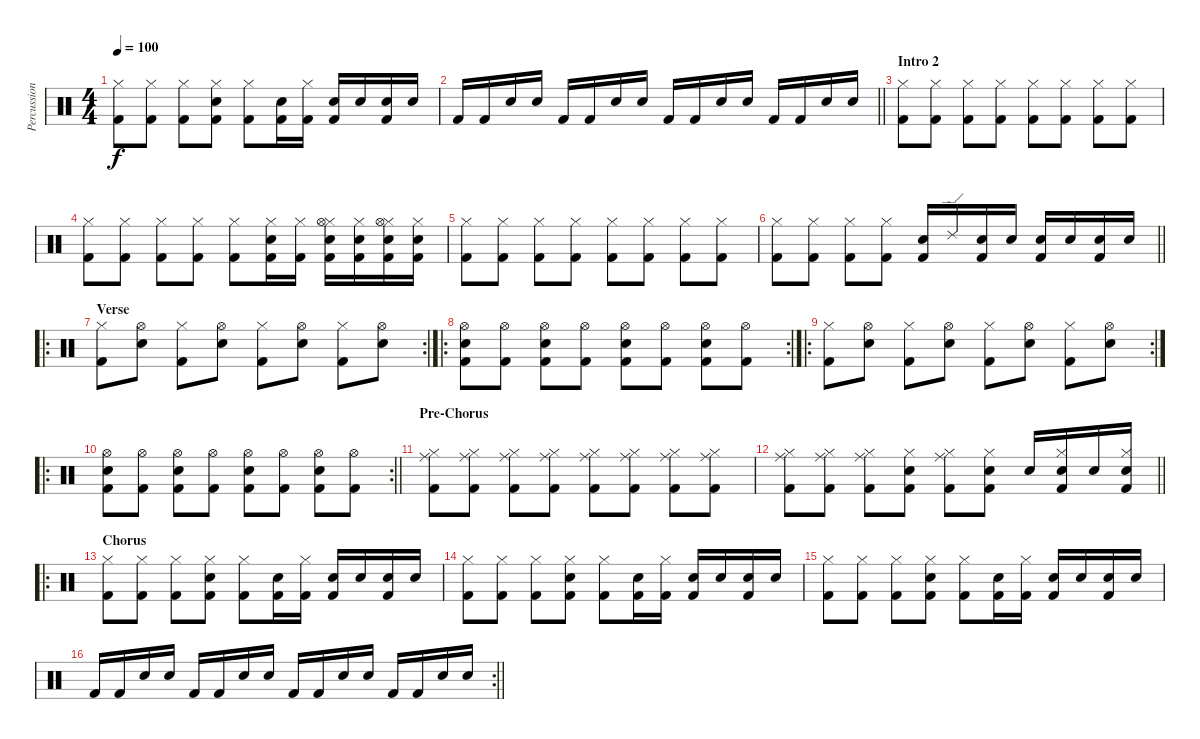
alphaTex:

\track ("Percussion" "Percussion") {instrument percussion}
\staff {score}
\articulation defaults
\ts (4 4)
\tempo 100
\clef neutral
\ks c
("Kick (hit) 2" "Hi-Hat (closed)").8{dy f} ("Kick (hit) 2" "Hi-Hat (closed)").8 ("Kick (hit) 2" "Hi-Hat (closed)").8 ("Kick (hit) 2" "Snare (hit) 2" "Hi-Hat (closed)").8 ("Kick (hit) 2" "Hi-Hat (closed)").8 ("Kick (hit) 2" "Snare (hit) 2").16 ("Kick (hit) 2" "Hi-Hat (closed)").16 ("Kick (hit) 2" "Snare (hit) 2").16 "Snare (hit) 2".16 ("Kick (hit) 2" "Snare (hit) 2").16 "Snare (hit) 2".16 |
\barLineRight lightlight "Kick (hit) 2".16 "Kick (hit) 2".16 "Snare (hit) 2".16 "Snare (hit) 2".16 "Kick (hit) 2".16 "Kick (hit) 2".16 "Snare (hit) 2".16 "Snare (hit) 2".16 "Kick (hit) 2".16 "Kick (hit) 2".16 "Snare (hit) 2".16 "Snare (hit) 2".16 "Kick (hit) 2".16 "Kick (hit) 2".16 "Snare (hit) 2".16 "Snare (hit) 2".16
|
\section ("" "Intro 2")
("Kick (hit) 2" "Hi-Hat (closed)").8 ("Kick (hit) 2" "Hi-Hat (closed)").8 ("Kick (hit) 2" "Hi-Hat (closed)").8 ("Kick (hit) 2" "Hi-Hat (closed)").8 ("Kick (hit) 2" "Hi-Hat (closed)").8 ("Kick (hit) 2" "Hi-Hat (closed)").8 ("Kick (hit) 2" "Hi-Hat (closed)").8 ("Kick (hit) 2" "Hi-Hat (closed)").8 |
("Kick (hit) 2" "Hi-Hat (closed)").8 ("Kick (hit) 2" "Hi-Hat (closed)").8 ("Kick (hit) 2" "Hi-Hat (closed)").8 ("Kick (hit) 2" "Hi-Hat (closed)").8 ("Kick (hit) 2" "Hi-Hat (closed)").8 ("Kick (hit) 2" "Hi-Hat (closed)" "Snare (hit) 2").16 ("Kick (hit) 2" "Hi-Hat (closed)").16 ("Kick (hit) 2" "Hi-Hat (closed)" "Snare (hit) 2" "Hi-Hat (open)").16 ("Kick (hit) 2" "Hi-Hat (closed)" "Snare (hit) 2").16 ("Kick (hit) 2" "Hi-Hat (closed)" "Snare (hit) 2" "Hi-Hat (open)").16 ("Kick (hit) 2" "Hi-Hat (closed)" "Snare (hit) 2").16 |
("Kick (hit) 2" "Hi-Hat (closed)").8 ("Kick (hit) 2" "Hi-Hat (closed)").8 ("Kick (hit) 2" "Hi-Hat (closed)").8 ("Kick (hit) 2" "Hi-Hat (closed)").8 ("Kick (hit) 2" "Hi-Hat (closed)").8 ("Kick (hit) 2" "Hi-Hat (closed)").8 ("Kick (hit) 2" "Hi-Hat (closed)").8 ("Kick (hit) 2" "Hi-Hat (closed)").8 |
\barLineRight lightlight
("Kick (hit) 2" "Hi-Hat (closed)").8 ("Kick (hit) 2" "Hi-Hat (closed)").8 ("Kick (hit) 2" "Hi-Hat (closed)").8 ("Kick (hit) 2" "Hi-Hat (closed)").8 ("Kick (hit) 2" "Snare (hit) 2").16 "Ride (edge) 2".16 ("Kick (hit) 2" "Snare (hit) 2").16 "Snare (hit) 2".16 ("Kick (hit) 2" "Snare (hit) 2").16 "Snare (hit) 2".16 ("Kick (hit) 2" "Snare (hit) 2").16 "Snare (hit) 2".16 |
\ro
\rc 2
\section ("" "Verse")
("Kick (hit) 2" "Hi-Hat (closed)").8 ("Snare (hit) 2" "Hi-Hat (open)").8 ("Kick (hit) 2" "Hi-Hat (closed)").8 ("Snare (hit) 2" "Hi-Hat (open)").8 ("Kick (hit) 2" "Hi-Hat (closed)").8 ("Snare (hit) 2" "Hi-Hat (open)").8 ("Kick (hit) 2" "Hi-Hat (closed)").8 ("Snare (hit) 2" "Hi-Hat (open)").8 |
\ro
\rc 2
("Kick (hit) 2" "Hi-Hat (open)" "Snare (hit) 2").8 ("Kick (hit) 2" "Hi-Hat (open)").8 ("Kick (hit) 2" "Hi-Hat (open)" "Snare (hit) 2").8 ("Kick (hit) 2" "Hi-Hat (open)").8 ("Kick (hit) 2" "Hi-Hat (open)" "Snare (hit) 2").8 ("Kick (hit) 2" "Hi-Hat (open)").8 ("Kick (hit) 2" "Hi-Hat (open)" "Snare (hit) 2").8 ("Kick (hit) 2" "Hi-Hat (open)").8 |
\ro
\rc 2
("Kick (hit) 2" "Hi-Hat (closed)").8 ("Snare (hit) 2" "Hi-Hat (open)").8 ("Kick (hit) 2" "Hi-Hat (closed)").8 ("Snare (hit) 2" "Hi-Hat (open)").8 ("Kick (hit) 2" "Hi-Hat (closed)").8 ("Snare (hit) 2" "Hi-Hat (open)").8 ("Kick (hit) 2" "Hi-Hat (closed)").8 ("Snare (hit) 2" "Hi-Hat (open)").8 |
\ro
\rc 2
\barLineRight lightlight
("Kick (hit) 2" "Hi-Hat (open)" "Snare (hit) 2").8 ("Kick (hit) 2" "Hi-Hat (open)").8 ("Kick (hit) 2" "Hi-Hat (open)" "Snare (hit) 2").8 ("Kick (hit) 2" "Hi-Hat (open)").8 ("Kick (hit) 2" "Hi-Hat (open)" "Snare (hit) 2").8 ("Kick (hit) 2" "Hi-Hat (open)").8 ("Kick (hit) 2" "Hi-Hat (open)" "Snare (hit) 2").8 ("Kick (hit) 2" "Hi-Hat (open)").8 |
\section ("" "Pre-Chorus")
("Kick (hit) 2" "Hi-Hat (closed)" "Ride (middle)").8 ("Kick (hit) 2" "Hi-Hat (closed)" "Ride (middle)").8 ("Kick (hit) 2" "Hi-Hat (closed)" "Ride (middle)").8 ("Kick (hit) 2" "Hi-Hat (closed)" "Ride (middle)").8 ("Kick (hit) 2" "Hi-Hat (closed)" "Ride (middle)").8 ("Kick (hit) 2" "Hi-Hat (closed)" "Ride (middle)").8 ("Kick (hit) 2" "Hi-Hat (closed)" "Ride (middle)").8 ("Kick (hit) 2" "Hi-Hat (closed)" "Ride (middle)").8 |
\barLineRight lightlight
("Kick (hit) 2" "Hi-Hat (closed)" "Ride (middle)").8 ("Kick (hit) 2" "Hi-Hat (closed)" "Ride (middle)").8 ("Kick (hit) 2" "Hi-Hat (closed)" "Ride (middle)").8 ("Kick (hit) 2" "Hi-Hat (closed)" "Snare (hit) 2").8 ("Kick (hit) 2" "Hi-Hat (closed)" "Ride (middle)").8 ("Kick (hit) 2" "Hi-Hat (closed)" "Snare (hit) 2").8 "Snare (hit) 2".16 ("Kick (hit) 2" "Hi-Hat (closed)" "Snare (hit) 2").16 "Snare (hit) 2".16 ("Kick (hit) 2" "Hi-Hat (closed)" "Snare (hit) 2").16 |
\ro
\section ("" "Chorus")
("Kick (hit) 2" "Hi-Hat (closed)").8 ("Kick (hit) 2" "Hi-Hat (closed)").8 ("Kick (hit) 2" "Hi-Hat (closed)").8 ("Kick (hit) 2" "Snare (hit) 2" "Hi-Hat (closed)").8 ("Kick (hit) 2" "Hi-Hat (closed)").8 ("Kick (hit) 2" "Snare (hit) 2").16 ("Kick (hit) 2" "Hi-Hat (closed)").16 ("Kick (hit) 2" "Snare (hit) 2").16 "Snare (hit) 2".16 ("Kick (hit) 2" "Snare (hit) 2").16 "Snare (hit) 2".16 |
("Kick (hit) 2" "Hi-Hat (closed)").8 ("Kick (hit) 2" "Hi-Hat (closed)").8 ("Kick (hit) 2" "Hi-Hat (closed)").8 ("Kick (hit) 2" "Snare (hit) 2" "Hi-Hat (closed)").8 ("Kick (hit) 2" "Hi-Hat (closed)").8 ("Kick (hit) 2" "Snare (hit) 2").16 ("Kick (hit) 2" "Hi-Hat (closed)").16 ("Kick (hit) 2" "Snare (hit) 2").16 "Snare (hit) 2".16 ("Kick (hit) 2" "Snare (hit) 2").16 "Snare (hit) 2".16 |
("Kick (hit) 2" "Hi-Hat (closed)").8 ("Kick (hit) 2" "Hi-Hat (closed)").8 ("Kick (hit) 2" "Hi-Hat (closed)").8 ("Kick (hit) 2" "Snare (hit) 2" "Hi-Hat (closed)").8 ("Kick (hit) 2" "Hi-Hat (closed)").8 ("Kick (hit) 2" "Snare (hit) 2").16 ("Kick (hit) 2" "Hi-Hat (closed)").16 ("Kick (hit) 2" "Snare (hit) 2").16 "Snare (hit) 2".16 ("Kick (hit) 2" "Snare (hit) 2").16 "Snare (hit) 2".16 |
\rc 2
\barLineRight lightlight "Kick (hit) 2".16 "Kick (hit) 2".16 "Snare (hit) 2".16 "Snare (hit) 2".16 "Kick (hit) 2".16 "Kick (hit) 2".16 "Snare (hit) 2".16 "Snare (hit) 2".16 "Kick (hit) 2".16 "Kick (hit) 2".16 "Snare (hit) 2".16 "Snare (hit) 2".16 "Kick (hit) 2".16 "Kick (hit) 2".16 "Snare (hit) 2".16 "Snare (hit) 2".16
